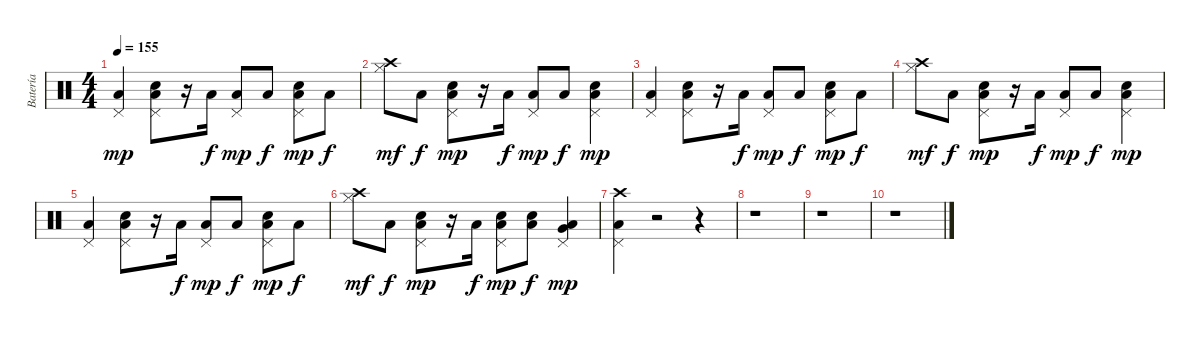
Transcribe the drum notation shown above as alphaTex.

\track ("Batería" "Batería") {instrument percussion}
\staff {score}
\articulation defaults
\ts (4 4)
\tempo 155
\clef neutral
\ks c
("Low Floor Tom (hit)" "Pedal Hi-Hat (hit)").4{dy mp} ("Low Floor Tom (hit)" "Snare (hit) 2" "Pedal Hi-Hat (hit)").8 r.16 "Low Floor Tom (hit)".16{dy f} ("Low Floor Tom (hit)" "Pedal Hi-Hat (hit)").8{dy mp} "Low Floor Tom (hit)".8{dy f} ("Low Floor Tom (hit)" "Snare (hit) 2" "Pedal Hi-Hat (hit)").8{dy mp} "Low Floor Tom (hit)".8{dy f} |
("Hi-Hat (closed)" "Crash high (hit)").8{dy mf} "Low Floor Tom (hit)".8{dy f} ("Low Floor Tom (hit)" "Snare (hit) 2" "Pedal Hi-Hat (hit)").8{dy mp} r.16 "Low Floor Tom (hit)".16{dy f} ("Low Floor Tom (hit)" "Pedal Hi-Hat (hit)").8{dy mp} "Low Floor Tom (hit)".8{dy f} ("Low Floor Tom (hit)" "Snare (hit) 2" "Pedal Hi-Hat (hit)").4{dy mp} |
("Low Floor Tom (hit)" "Pedal Hi-Hat (hit)").4 ("Low Floor Tom (hit)" "Snare (hit) 2" "Pedal Hi-Hat (hit)").8 r.16 "Low Floor Tom (hit)".16{dy f} ("Low Floor Tom (hit)" "Pedal Hi-Hat (hit)").8{dy mp} "Low Floor Tom (hit)".8{dy f} ("Low Floor Tom (hit)" "Snare (hit) 2" "Pedal Hi-Hat (hit)").8{dy mp} "Low Floor Tom (hit)".8{dy f} |
("Hi-Hat (closed)" "Crash high (hit)").8{dy mf} "Low Floor Tom (hit)".8{dy f} ("Low Floor Tom (hit)" "Snare (hit) 2" "Pedal Hi-Hat (hit)").8{dy mp} r.16 "Low Floor Tom (hit)".16{dy f} ("Low Floor Tom (hit)" "Pedal Hi-Hat (hit)").8{dy mp} "Low Floor Tom (hit)".8{dy f} ("Low Floor Tom (hit)" "Snare (hit) 2" "Pedal Hi-Hat (hit)").4{dy mp} |
("Low Floor Tom (hit)" "Pedal Hi-Hat (hit)").4 ("Low Floor Tom (hit)" "Snare (hit) 2" "Pedal Hi-Hat (hit)").8 r.16 "Low Floor Tom (hit)".16{dy f} ("Low Floor Tom (hit)" "Pedal Hi-Hat (hit)").8{dy mp} "Low Floor Tom (hit)".8{dy f} ("Low Floor Tom (hit)" "Snare (hit) 2" "Pedal Hi-Hat (hit)").8{dy mp} "Low Floor Tom (hit)".8{dy f} |
("Hi-Hat (closed)" "Crash high (hit)").8{dy mf} "Low Floor Tom (hit)".8{dy f} ("Low Floor Tom (hit)" "Snare (hit) 2" "Pedal Hi-Hat (hit)").8{dy mp} r.16 "Low Floor Tom (hit)".16{dy f} ("Low Floor Tom (hit)" "Snare (hit) 2" "Pedal Hi-Hat (hit)").8{dy mp} ("Low Floor Tom (hit)" "Snare (hit) 2").8{dy f} ("Low Floor Tom (hit)" "Very Low Tom (hit)" "Pedal Hi-Hat (hit)").4{dy mp} |
("Low Floor Tom (hit)" "Pedal Hi-Hat (hit)" "Crash high (hit)").4 r.2 r.4 |
r.1 |
r.1 |
r.1
